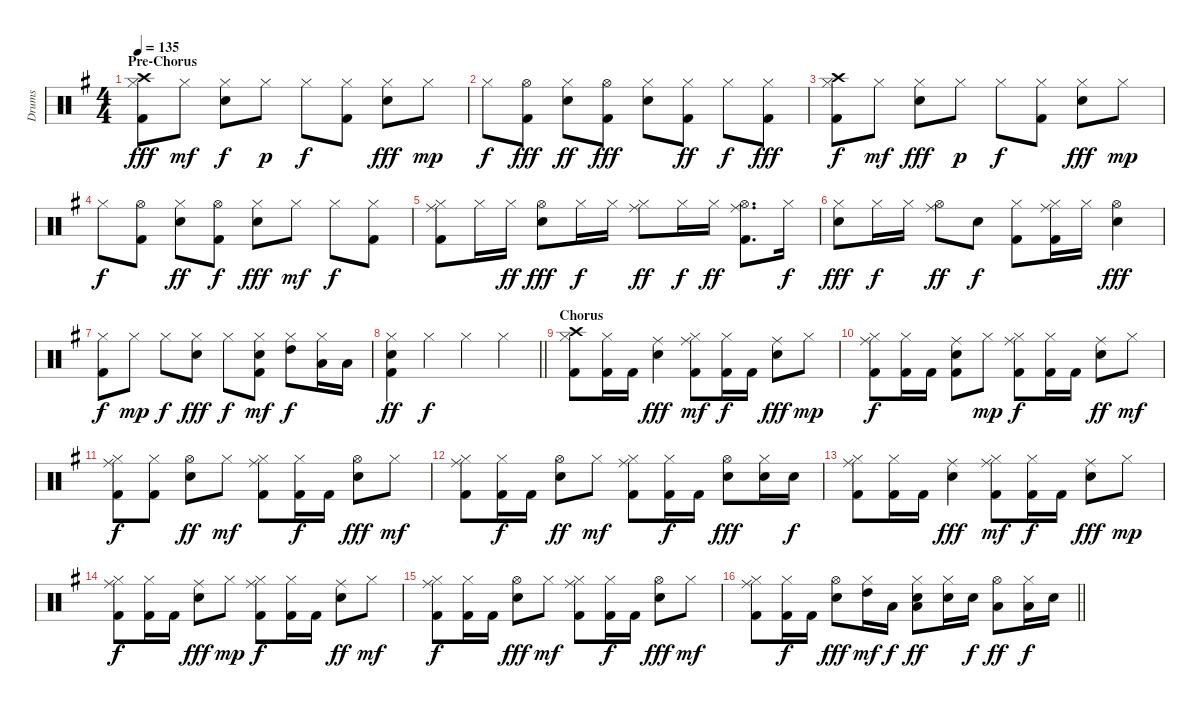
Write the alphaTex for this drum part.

\track ("Drums" "Drums") {instrument percussion}
\staff {score}
\articulation defaults
\ts (4 4)
\section ("" "Pre-Chorus")
\tempo 135
\clef neutral
\ks g
("Hi-Hat (closed)" "Crash high (hit)" "Kick (hit) 2").8{dy fff} "Hi-Hat (closed)".8{dy mf} ("Hi-Hat (closed)" "Electric Snare (hit)").8{dy f} "Hi-Hat (closed)".8{dy p} "Hi-Hat (closed)".8{dy f} ("Hi-Hat (closed)" "Kick (hit) 2").8 ("Hi-Hat (closed)" "Electric Snare (hit)").8{dy fff} "Hi-Hat (closed)".8{dy mp} |
"Hi-Hat (closed)".8{dy f} ("Hi-Hat (open)" "Kick (hit) 2").8{dy fff} ("Hi-Hat (closed)" "Electric Snare (hit)").8{dy ff} ("Hi-Hat (open)" "Kick (hit) 2").8{dy fff} ("Hi-Hat (closed)" "Electric Snare (hit)").8 ("Hi-Hat (closed)" "Kick (hit) 2").8{dy ff} "Hi-Hat (closed)".8{dy f} ("Hi-Hat (closed)" "Kick (hit) 2").8{dy fff} |
("Hi-Hat (closed)" "Crash high (hit)" "Kick (hit) 2").8{dy f} "Hi-Hat (closed)".8{dy mf} ("Hi-Hat (closed)" "Electric Snare (hit)").8{dy fff} "Hi-Hat (closed)".8{dy p} "Hi-Hat (closed)".8{dy f} ("Hi-Hat (closed)" "Kick (hit) 2").8 ("Hi-Hat (closed)" "Electric Snare (hit)").8{dy fff} "Hi-Hat (closed)".8{dy mp} |
"Hi-Hat (closed)".8{dy f} ("Hi-Hat (open)" "Kick (hit) 2").8 ("Hi-Hat (closed)" "Electric Snare (hit)").8{dy ff} ("Hi-Hat (open)" "Kick (hit) 2").8{dy f} ("Hi-Hat (closed)" "Electric Snare (hit)").8{dy fff} "Hi-Hat (closed)".8{dy mf} "Hi-Hat (closed)".8{dy f} ("Hi-Hat (closed)" "Kick (hit) 2").8 |
("Hi-Hat (closed)" "Ride (middle)" "Kick (hit) 2").8 "Hi-Hat (closed)".16 "Hi-Hat (closed)".16{dy ff} ("Hi-Hat (open)" "Electric Snare (hit)").8{dy fff} "Hi-Hat (closed)".16{dy f} "Hi-Hat (closed)".16 ("Hi-Hat (closed)" "Ride (middle)").8{dy ff} "Hi-Hat (closed)".16{dy f} "Hi-Hat (closed)".16{dy ff} ("Hi-Hat (open)" "Ride (middle)" "Kick (hit) 2").8{d} "Hi-Hat (closed)".16{dy f} |
("Hi-Hat (closed)" "Electric Snare (hit)").8{dy fff} "Hi-Hat (closed)".16{dy f} "Hi-Hat (closed)".16 ("Hi-Hat (open)" "Ride (middle)").8{dy ff} "Electric Snare (hit)".8{dy f} ("Hi-Hat (closed)" "Kick (hit) 2").8 ("Hi-Hat (closed)" "Ride (middle)" "Kick (hit) 2").16 "Hi-Hat (closed)".16 ("Hi-Hat (open)" "Electric Snare (hit)").4{dy fff} |
("Hi-Hat (closed)" "Kick (hit) 2").8{dy f} "Hi-Hat (closed)".8{dy mp} "Hi-Hat (closed)".8{dy f} ("Hi-Hat (closed)" "Electric Snare (hit)").8{dy fff} "Hi-Hat (closed)".8{dy f} ("Hi-Hat (closed)" "Electric Snare (hit)" "Kick (hit) 2").8{dy mf} ("Hi-Hat (closed)" "High Tom (hit)").8{dy f} ("Hi-Hat (closed)" "Low Tom (hit)").16 "Low Floor Tom (hit)".16 |
\barLineRight lightlight
("Hi-Hat (closed)" "Electric Snare (hit)" "Kick (hit) 2").4{dy ff} "Hi-Hat (closed)".4{dy f} "Hi-Hat (closed)".4 "Hi-Hat (closed)".4 |
\section ("" "Chorus")
("Hi-Hat (closed)" "Crash high (hit)" "Kick (hit) 2").8 ("Hi-Hat (closed)" "Kick (hit) 2").16 "Kick (hit) 2".16 ("Ride (middle)" "Electric Snare (hit)").4{dy fff} ("Hi-Hat (closed)" "Ride (middle)" "Kick (hit) 2").8{dy mf} ("Hi-Hat (closed)" "Kick (hit) 2").16{dy f} "Kick (hit) 2".16 ("Ride (middle)" "Electric Snare (hit)").8{dy fff} "Hi-Hat (closed)".8{dy mp} |
("Hi-Hat (closed)" "Ride (middle)" "Kick (hit) 2").8{dy f} ("Hi-Hat (closed)" "Kick (hit) 2").16 "Kick (hit) 2".16 ("Ride (middle)" "Electric Snare (hit)" "Kick (hit) 2").8 "Hi-Hat (closed)".8{dy mp} ("Hi-Hat (closed)" "Ride (middle)" "Kick (hit) 2").8{dy f} ("Hi-Hat (closed)" "Kick (hit) 2").16 "Kick (hit) 2".16 ("Ride (middle)" "Electric Snare (hit)").8{dy ff} "Hi-Hat (closed)".8{dy mf} |
("Hi-Hat (closed)" "Ride (middle)" "Kick (hit) 2").8{dy f} ("Hi-Hat (closed)" "Kick (hit) 2").8 ("Hi-Hat (open)" "Electric Snare (hit)").8{dy ff} "Hi-Hat (closed)".8{dy mf} ("Hi-Hat (closed)" "Ride (middle)" "Kick (hit) 2").8 ("Hi-Hat (closed)" "Kick (hit) 2").16{dy f} "Kick (hit) 2".16 ("Hi-Hat (open)" "Electric Snare (hit)").8{dy fff} "Hi-Hat (closed)".8{dy mf} |
("Hi-Hat (closed)" "Ride (middle)" "Kick (hit) 2").8 ("Hi-Hat (closed)" "Kick (hit) 2").16{dy f} "Kick (hit) 2".16 ("Hi-Hat (open)" "Electric Snare (hit)").8{dy ff} "Hi-Hat (closed)".8{dy mf} ("Hi-Hat (closed)" "Ride (middle)" "Kick (hit) 2").8 ("Hi-Hat (closed)" "Kick (hit) 2").16{dy f} "Kick (hit) 2".16 ("Hi-Hat (open)" "Electric Snare (hit)").8{dy fff} ("Hi-Hat (closed)" "Electric Snare (hit)").16 "Electric Snare (hit)".16{dy f} |
("Hi-Hat (closed)" "Ride (middle)" "Kick (hit) 2").8 ("Hi-Hat (closed)" "Kick (hit) 2").16 "Kick (hit) 2".16 ("Ride (middle)" "Electric Snare (hit)").4{dy fff} ("Hi-Hat (closed)" "Ride (middle)" "Kick (hit) 2").8{dy mf} ("Hi-Hat (closed)" "Kick (hit) 2").16{dy f} "Kick (hit) 2".16 ("Ride (middle)" "Electric Snare (hit)").8{dy fff} "Hi-Hat (closed)".8{dy mp} |
("Hi-Hat (closed)" "Ride (middle)" "Kick (hit) 2").8{dy f} ("Hi-Hat (closed)" "Kick (hit) 2").16 "Kick (hit) 2".16 ("Ride (middle)" "Electric Snare (hit)").8{dy fff} "Hi-Hat (closed)".8{dy mp} ("Hi-Hat (closed)" "Ride (middle)" "Kick (hit) 2").8{dy f} ("Hi-Hat (closed)" "Kick (hit) 2").16 "Kick (hit) 2".16 ("Ride (middle)" "Electric Snare (hit)").8{dy ff} "Hi-Hat (closed)".8{dy mf} |
("Hi-Hat (closed)" "Ride (middle)" "Kick (hit) 2").8{dy f} ("Hi-Hat (closed)" "Kick (hit) 2").16 "Kick (hit) 2".16 ("Hi-Hat (open)" "Electric Snare (hit)").8{dy fff} "Hi-Hat (closed)".8{dy mf} ("Hi-Hat (closed)" "Ride (middle)" "Kick (hit) 2").8 ("Hi-Hat (closed)" "Kick (hit) 2").16{dy f} "Kick (hit) 2".16 ("Hi-Hat (open)" "Electric Snare (hit)").8{dy fff} "Hi-Hat (closed)".8{dy mf} |
\barLineRight lightlight
("Hi-Hat (closed)" "Ride (middle)" "Kick (hit) 2").8 ("Hi-Hat (closed)" "Kick (hit) 2").16{dy f} "Kick (hit) 2".16 ("Hi-Hat (open)" "Electric Snare (hit)").8{dy fff} ("Hi-Hat (closed)" "High Tom (hit)").16{dy mf} "Low Tom (hit)".16{dy f} ("Hi-Hat (closed)" "Electric Snare (hit)" "Low Floor Tom (hit)").8{dy ff} ("Hi-Hat (closed)" "Electric Snare (hit)").16 "Electric Snare (hit)".16{dy f} ("Hi-Hat (open)" "Low Tom (hit)").8{dy ff} ("Hi-Hat (closed)" "Low Tom (hit)").16{dy f} "Electric Snare (hit)".16
